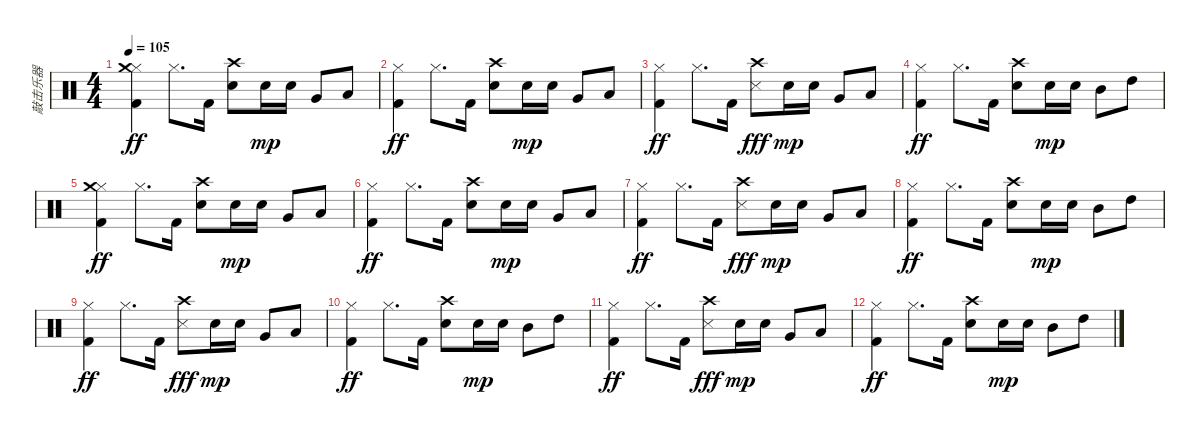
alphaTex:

\track ("敲击乐器" "敲击乐器") {instrument percussion}
\staff {score}
\articulation defaults
\ts (4 4)
\tempo 105
\clef neutral
\ks c
("Hi-Hat (closed)" "Crash medium (hit)" "Kick (hit) 2").4{dy ff} "Hi-Hat (closed)".8{d} "Kick (hit) 2".16 ("Electric Snare (hit)" "Crash high (hit)").8 "Electric Snare (hit)".16{dy mp} "Electric Snare (hit)".16 "Very Low Tom (hit)".8 "Low Floor Tom (hit)".8 |
("Hi-Hat (closed)" "Kick (hit) 2").4{dy ff} "Hi-Hat (closed)".8{d} "Kick (hit) 2".16 ("Electric Snare (hit)" "Crash high (hit)").8 "Electric Snare (hit)".16{dy mp} "Electric Snare (hit)".16 "Very Low Tom (hit)".8 "Low Floor Tom (hit)".8 |
("Hi-Hat (closed)" "Kick (hit) 2").4{dy ff} "Hi-Hat (closed)".8{d} "Kick (hit) 2".16 ("Crash high (hit)" "Snare (side stick) 3").8{dy fff} "Electric Snare (hit)".16{dy mp} "Electric Snare (hit)".16 "Very Low Tom (hit)".8 "Low Floor Tom (hit)".8 |
("Hi-Hat (closed)" "Kick (hit) 2").4{dy ff} "Hi-Hat (closed)".8{d} "Kick (hit) 2".16 ("Electric Snare (hit)" "Crash high (hit)").8 "Electric Snare (hit)".16{dy mp} "Electric Snare (hit)".16 "Mid Tom (hit)".8 "High Tom (hit)".8 |
("Hi-Hat (closed)" "Crash medium (hit)" "Kick (hit) 2").4{dy ff} "Hi-Hat (closed)".8{d} "Kick (hit) 2".16 ("Electric Snare (hit)" "Crash high (hit)").8 "Electric Snare (hit)".16{dy mp} "Electric Snare (hit)".16 "Very Low Tom (hit)".8 "Low Floor Tom (hit)".8 |
("Hi-Hat (closed)" "Kick (hit) 2").4{dy ff} "Hi-Hat (closed)".8{d} "Kick (hit) 2".16 ("Electric Snare (hit)" "Crash high (hit)").8 "Electric Snare (hit)".16{dy mp} "Electric Snare (hit)".16 "Very Low Tom (hit)".8 "Low Floor Tom (hit)".8 |
("Hi-Hat (closed)" "Kick (hit) 2").4{dy ff} "Hi-Hat (closed)".8{d} "Kick (hit) 2".16 ("Crash high (hit)" "Snare (side stick) 3").8{dy fff} "Electric Snare (hit)".16{dy mp} "Electric Snare (hit)".16 "Very Low Tom (hit)".8 "Low Floor Tom (hit)".8 |
("Hi-Hat (closed)" "Kick (hit) 2").4{dy ff} "Hi-Hat (closed)".8{d} "Kick (hit) 2".16 ("Electric Snare (hit)" "Crash high (hit)").8 "Electric Snare (hit)".16{dy mp} "Electric Snare (hit)".16 "Mid Tom (hit)".8 "High Tom (hit)".8 |
("Hi-Hat (closed)" "Kick (hit) 2").4{dy ff} "Hi-Hat (closed)".8{d} "Kick (hit) 2".16 ("Crash high (hit)" "Snare (side stick) 3").8{dy fff} "Electric Snare (hit)".16{dy mp} "Electric Snare (hit)".16 "Very Low Tom (hit)".8 "Low Floor Tom (hit)".8 |
("Hi-Hat (closed)" "Kick (hit) 2").4{dy ff} "Hi-Hat (closed)".8{d} "Kick (hit) 2".16 ("Electric Snare (hit)" "Crash high (hit)").8 "Electric Snare (hit)".16{dy mp} "Electric Snare (hit)".16 "Mid Tom (hit)".8 "High Tom (hit)".8 |
("Hi-Hat (closed)" "Kick (hit) 2").4{dy ff} "Hi-Hat (closed)".8{d} "Kick (hit) 2".16 ("Crash high (hit)" "Snare (side stick) 3").8{dy fff} "Electric Snare (hit)".16{dy mp} "Electric Snare (hit)".16 "Very Low Tom (hit)".8 "Low Floor Tom (hit)".8 |
("Hi-Hat (closed)" "Kick (hit) 2").4{dy ff} "Hi-Hat (closed)".8{d} "Kick (hit) 2".16 ("Electric Snare (hit)" "Crash high (hit)").8 "Electric Snare (hit)".16{dy mp} "Electric Snare (hit)".16 "Mid Tom (hit)".8 "High Tom (hit)".8
